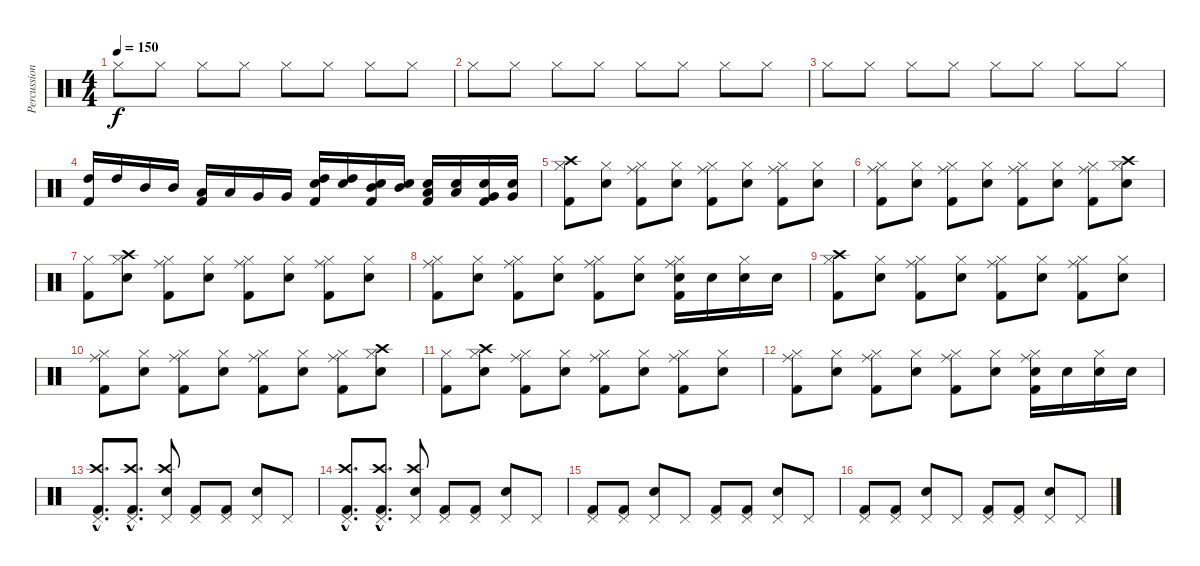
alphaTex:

\track ("Percussion" "Percussion") {instrument percussion}
\staff {score}
\articulation defaults
\ts (4 4)
\tempo 150
\clef neutral
\ks c "Hi-Hat (closed)".8{dy f} "Hi-Hat (closed)".8 "Hi-Hat (closed)".8 "Hi-Hat (closed)".8 "Hi-Hat (closed)".8 "Hi-Hat (closed)".8 "Hi-Hat (closed)".8 "Hi-Hat (closed)".8
|
"Hi-Hat (closed)".8 "Hi-Hat (closed)".8 "Hi-Hat (closed)".8 "Hi-Hat (closed)".8 "Hi-Hat (closed)".8 "Hi-Hat (closed)".8 "Hi-Hat (closed)".8 "Hi-Hat (closed)".8 |
"Hi-Hat (closed)".8 "Hi-Hat (closed)".8 "Hi-Hat (closed)".8 "Hi-Hat (closed)".8 "Hi-Hat (closed)".8 "Hi-Hat (closed)".8 "Hi-Hat (closed)".8 "Hi-Hat (closed)".8 |
("High Tom (hit)" "Kick (hit) 2").16 "High Tom (hit)".16 "Mid Tom (hit)".16 "Mid Tom (hit)".16 ("Low Tom (hit)" "Kick (hit) 2").16 "Low Tom (hit)".16 "Very Low Tom (hit)".16 "Very Low Tom (hit)".16 ("Electric Snare (hit)" "High Tom (hit)" "Kick (hit) 2").16 ("Electric Snare (hit)" "High Tom (hit)").16 ("Electric Snare (hit)" "Mid Tom (hit)" "Kick (hit) 2").16 ("Electric Snare (hit)" "Mid Tom (hit)").16 ("Electric Snare (hit)" "Low Tom (hit)" "Kick (hit) 2").16 ("Electric Snare (hit)" "Low Tom (hit)").16 ("Electric Snare (hit)" "Very Low Tom (hit)" "Kick (hit) 2").16 ("Electric Snare (hit)" "Very Low Tom (hit)").16 |
("Hi-Hat (closed)" "Kick (hit) 2" "Crash high (hit)").8 ("Hi-Hat (closed)" "Electric Snare (hit)").8 ("Hi-Hat (closed)" "Kick (hit) 2" "Ride (middle)").8 ("Hi-Hat (closed)" "Electric Snare (hit)").8 ("Hi-Hat (closed)" "Kick (hit) 2" "Ride (middle)").8 ("Hi-Hat (closed)" "Electric Snare (hit)").8 ("Hi-Hat (closed)" "Kick (hit) 2" "Ride (middle)").8 ("Hi-Hat (closed)" "Electric Snare (hit)").8 |
("Hi-Hat (closed)" "Kick (hit) 2" "Ride (middle)").8 ("Hi-Hat (closed)" "Electric Snare (hit)").8 ("Hi-Hat (closed)" "Kick (hit) 2" "Ride (middle)").8 ("Hi-Hat (closed)" "Electric Snare (hit)").8 ("Hi-Hat (closed)" "Kick (hit) 2" "Ride (middle)").8 ("Hi-Hat (closed)" "Electric Snare (hit)").8 ("Hi-Hat (closed)" "Kick (hit) 2" "Ride (middle)").8 ("Hi-Hat (closed)" "Electric Snare (hit)" "Crash high (hit)").8 |
("Hi-Hat (closed)" "Kick (hit) 2").8 ("Hi-Hat (closed)" "Electric Snare (hit)" "Crash high (hit)").8 ("Hi-Hat (closed)" "Kick (hit) 2" "Ride (middle)").8 ("Hi-Hat (closed)" "Electric Snare (hit)").8 ("Hi-Hat (closed)" "Kick (hit) 2" "Ride (middle)").8 ("Hi-Hat (closed)" "Electric Snare (hit)").8 ("Hi-Hat (closed)" "Kick (hit) 2" "Ride (middle)").8 ("Hi-Hat (closed)" "Electric Snare (hit)").8 |
("Hi-Hat (closed)" "Kick (hit) 2" "Ride (middle)").8 ("Hi-Hat (closed)" "Electric Snare (hit)").8 ("Hi-Hat (closed)" "Kick (hit) 2" "Ride (middle)").8 ("Hi-Hat (closed)" "Electric Snare (hit)").8 ("Hi-Hat (closed)" "Kick (hit) 2" "Ride (middle)").8 ("Hi-Hat (closed)" "Electric Snare (hit)").8 ("Hi-Hat (closed)" "Electric Snare (hit)" "Kick (hit) 2" "Ride (middle)").16 "Electric Snare (hit)".16 ("Hi-Hat (closed)" "Electric Snare (hit)").16 "Electric Snare (hit)".16 |
("Hi-Hat (closed)" "Kick (hit) 2" "Crash high (hit)").8 ("Hi-Hat (closed)" "Electric Snare (hit)").8 ("Hi-Hat (closed)" "Kick (hit) 2" "Ride (middle)").8 ("Hi-Hat (closed)" "Electric Snare (hit)").8 ("Hi-Hat (closed)" "Kick (hit) 2" "Ride (middle)").8 ("Hi-Hat (closed)" "Electric Snare (hit)").8 ("Hi-Hat (closed)" "Kick (hit) 2" "Ride (middle)").8 ("Hi-Hat (closed)" "Electric Snare (hit)").8 |
("Hi-Hat (closed)" "Kick (hit) 2" "Ride (middle)").8 ("Hi-Hat (closed)" "Electric Snare (hit)").8 ("Hi-Hat (closed)" "Kick (hit) 2" "Ride (middle)").8 ("Hi-Hat (closed)" "Electric Snare (hit)").8 ("Hi-Hat (closed)" "Kick (hit) 2" "Ride (middle)").8 ("Hi-Hat (closed)" "Electric Snare (hit)").8 ("Hi-Hat (closed)" "Kick (hit) 2" "Ride (middle)").8 ("Hi-Hat (closed)" "Electric Snare (hit)" "Crash high (hit)").8 |
("Hi-Hat (closed)" "Kick (hit) 2").8 ("Hi-Hat (closed)" "Electric Snare (hit)" "Crash high (hit)").8 ("Hi-Hat (closed)" "Kick (hit) 2" "Ride (middle)").8 ("Hi-Hat (closed)" "Electric Snare (hit)").8 ("Hi-Hat (closed)" "Kick (hit) 2" "Ride (middle)").8 ("Hi-Hat (closed)" "Electric Snare (hit)").8 ("Hi-Hat (closed)" "Kick (hit) 2" "Ride (middle)").8 ("Hi-Hat (closed)" "Electric Snare (hit)").8 |
("Hi-Hat (closed)" "Kick (hit) 2" "Ride (middle)").8 ("Hi-Hat (closed)" "Electric Snare (hit)").8 ("Hi-Hat (closed)" "Kick (hit) 2" "Ride (middle)").8 ("Hi-Hat (closed)" "Electric Snare (hit)").8 ("Hi-Hat (closed)" "Kick (hit) 2" "Ride (middle)").8 ("Hi-Hat (closed)" "Electric Snare (hit)").8 ("Hi-Hat (closed)" "Electric Snare (hit)" "Kick (hit) 2" "Ride (middle)").16 "Electric Snare (hit)".16 ("Hi-Hat (closed)" "Electric Snare (hit)").16 "Electric Snare (hit)".16 |
("Pedal Hi-Hat (hit)"{hac} "Kick (hit) 2"{hac} "Crash high (hit)"{hac}).8{d} ("Pedal Hi-Hat (hit)"{hac} "Kick (hit) 2"{hac} "Crash high (hit)"{hac}).8{d} ("Pedal Hi-Hat (hit)" "Electric Snare (hit)" "Crash high (hit)").8 ("Pedal Hi-Hat (hit)" "Kick (hit) 2").8 ("Pedal Hi-Hat (hit)" "Kick (hit) 2").8 ("Pedal Hi-Hat (hit)" "Electric Snare (hit)").8 "Pedal Hi-Hat (hit)".8 |
("Pedal Hi-Hat (hit)"{hac} "Kick (hit) 2"{hac} "Crash high (hit)"{hac}).8{d} ("Pedal Hi-Hat (hit)"{hac} "Kick (hit) 2"{hac} "Crash high (hit)"{hac}).8{d} ("Pedal Hi-Hat (hit)" "Electric Snare (hit)" "Crash high (hit)").8 ("Pedal Hi-Hat (hit)" "Kick (hit) 2").8 ("Pedal Hi-Hat (hit)" "Kick (hit) 2").8 ("Pedal Hi-Hat (hit)" "Electric Snare (hit)").8 "Pedal Hi-Hat (hit)".8 |
("Pedal Hi-Hat (hit)" "Kick (hit) 2").8 ("Pedal Hi-Hat (hit)" "Kick (hit) 2").8 ("Pedal Hi-Hat (hit)" "Electric Snare (hit)").8 "Pedal Hi-Hat (hit)".8 ("Pedal Hi-Hat (hit)" "Kick (hit) 2").8 ("Pedal Hi-Hat (hit)" "Kick (hit) 2").8 ("Pedal Hi-Hat (hit)" "Electric Snare (hit)").8 "Pedal Hi-Hat (hit)".8 |
("Pedal Hi-Hat (hit)" "Kick (hit) 2").8 ("Pedal Hi-Hat (hit)" "Kick (hit) 2").8 ("Pedal Hi-Hat (hit)" "Electric Snare (hit)").8 "Pedal Hi-Hat (hit)".8 ("Pedal Hi-Hat (hit)" "Kick (hit) 2").8 ("Pedal Hi-Hat (hit)" "Kick (hit) 2").8 ("Pedal Hi-Hat (hit)" "Electric Snare (hit)").8 "Pedal Hi-Hat (hit)".8
